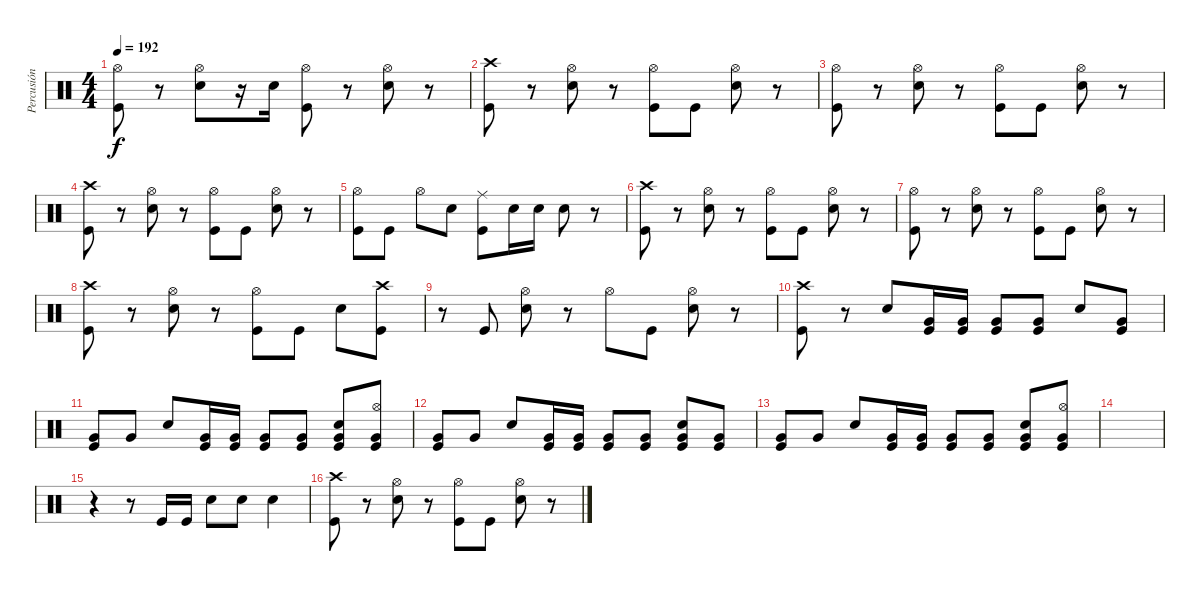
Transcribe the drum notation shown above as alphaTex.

\track ("Percusión" "Percusión") {instrument percussion}
\staff {score}
\articulation defaults
\ts (4 4)
\tempo 192
\clef neutral
\ks c
("Kick (hit)" "Hi-Hat (open)").8{dy f} r.8 ("Electric Snare (hit)" "Hi-Hat (open)").8 r.16 "Electric Snare (hit)".16 ("Kick (hit)" "Hi-Hat (open)").8 r.8 ("Electric Snare (hit)" "Hi-Hat (open)").8 r.8 |
("Kick (hit)" "Crash high (hit)").8 r.8 ("Electric Snare (hit)" "Hi-Hat (open)").8 r.8 ("Kick (hit)" "Hi-Hat (open)").8 "Kick (hit)".8 ("Electric Snare (hit)" "Hi-Hat (open)").8 r.8 |
("Kick (hit)" "Hi-Hat (open)").8 r.8 ("Electric Snare (hit)" "Hi-Hat (open)").8 r.8 ("Kick (hit)" "Hi-Hat (open)").8 "Kick (hit)".8 ("Electric Snare (hit)" "Hi-Hat (open)").8 r.8 |
("Kick (hit)" "Crash high (hit)").8 r.8 ("Electric Snare (hit)" "Hi-Hat (open)").8 r.8 ("Kick (hit)" "Hi-Hat (open)").8 "Kick (hit)".8 ("Electric Snare (hit)" "Hi-Hat (open)").8 r.8 |
("Kick (hit)" "Hi-Hat (open)").8 "Kick (hit)".8 "Hi-Hat (open)".8 "Electric Snare (hit)".8 ("Kick (hit)" "Ride (middle)").8 "Electric Snare (hit)".16 "Electric Snare (hit)".16 "Electric Snare (hit)".8 r.8 |
("Kick (hit)" "Crash high (hit)").8 r.8 ("Electric Snare (hit)" "Hi-Hat (open)").8 r.8 ("Kick (hit)" "Hi-Hat (open)").8 "Kick (hit)".8 ("Electric Snare (hit)" "Hi-Hat (open)").8 r.8 |
("Kick (hit)" "Hi-Hat (open)").8 r.8 ("Electric Snare (hit)" "Hi-Hat (open)").8 r.8 ("Kick (hit)" "Hi-Hat (open)").8 "Kick (hit)".8 ("Electric Snare (hit)" "Hi-Hat (open)").8 r.8 |
("Kick (hit)" "Crash high (hit)").8 r.8 ("Electric Snare (hit)" "Hi-Hat (open)").8 r.8 ("Kick (hit)" "Hi-Hat (open)").8 "Kick (hit)".8 "Electric Snare (hit)".8 ("Kick (hit)" "Crash high (hit)").8 |
r.8 "Kick (hit)".8 ("Electric Snare (hit)" "Hi-Hat (open)").8 r.8 "Hi-Hat (open)".8 "Kick (hit)".8 ("Electric Snare (hit)" "Hi-Hat (open)").8 r.8 |
("Kick (hit)" "Crash high (hit)").8 r.8 "Electric Snare (hit)".8 ("Kick (hit)" "Very Low Tom (hit)").16 ("Kick (hit)" "Very Low Tom (hit)").16 ("Kick (hit)" "Very Low Tom (hit)").8 ("Kick (hit)" "Very Low Tom (hit)").8 "Electric Snare (hit)".8 ("Kick (hit)" "Very Low Tom (hit)").8 |
("Kick (hit)" "Very Low Tom (hit)").8 "Very Low Tom (hit)".8 "Electric Snare (hit)".8 ("Kick (hit)" "Very Low Tom (hit)").16 ("Kick (hit)" "Very Low Tom (hit)").16 ("Kick (hit)" "Very Low Tom (hit)").8 ("Kick (hit)" "Very Low Tom (hit)").8 ("Kick (hit)" "Very Low Tom (hit)" "Electric Snare (hit)").8 ("Kick (hit)" "Very Low Tom (hit)" "Hi-Hat (open)").8 |
("Kick (hit)" "Very Low Tom (hit)").8 "Very Low Tom (hit)".8 "Electric Snare (hit)".8 ("Kick (hit)" "Very Low Tom (hit)").16 ("Kick (hit)" "Very Low Tom (hit)").16 ("Kick (hit)" "Very Low Tom (hit)").8 ("Kick (hit)" "Very Low Tom (hit)").8 ("Kick (hit)" "Very Low Tom (hit)" "Electric Snare (hit)").8 ("Kick (hit)" "Very Low Tom (hit)").8 |
("Kick (hit)" "Very Low Tom (hit)").8 "Very Low Tom (hit)".8 "Electric Snare (hit)".8 ("Kick (hit)" "Very Low Tom (hit)").16 ("Kick (hit)" "Very Low Tom (hit)").16 ("Kick (hit)" "Very Low Tom (hit)").8 ("Kick (hit)" "Very Low Tom (hit)").8 ("Kick (hit)" "Very Low Tom (hit)" "Electric Snare (hit)").8 ("Kick (hit)" "Very Low Tom (hit)" "Hi-Hat (open)").8 |
|
r.4 r.8 "Kick (hit)".16 "Kick (hit)".16 "Electric Snare (hit)".8 "Electric Snare (hit)".8 "Electric Snare (hit)".4 |
("Kick (hit)" "Crash high (hit)").8 r.8 ("Electric Snare (hit)" "Hi-Hat (open)").8 r.8 ("Kick (hit)" "Hi-Hat (open)").8 "Kick (hit)".8 ("Electric Snare (hit)" "Hi-Hat (open)").8 r.8
